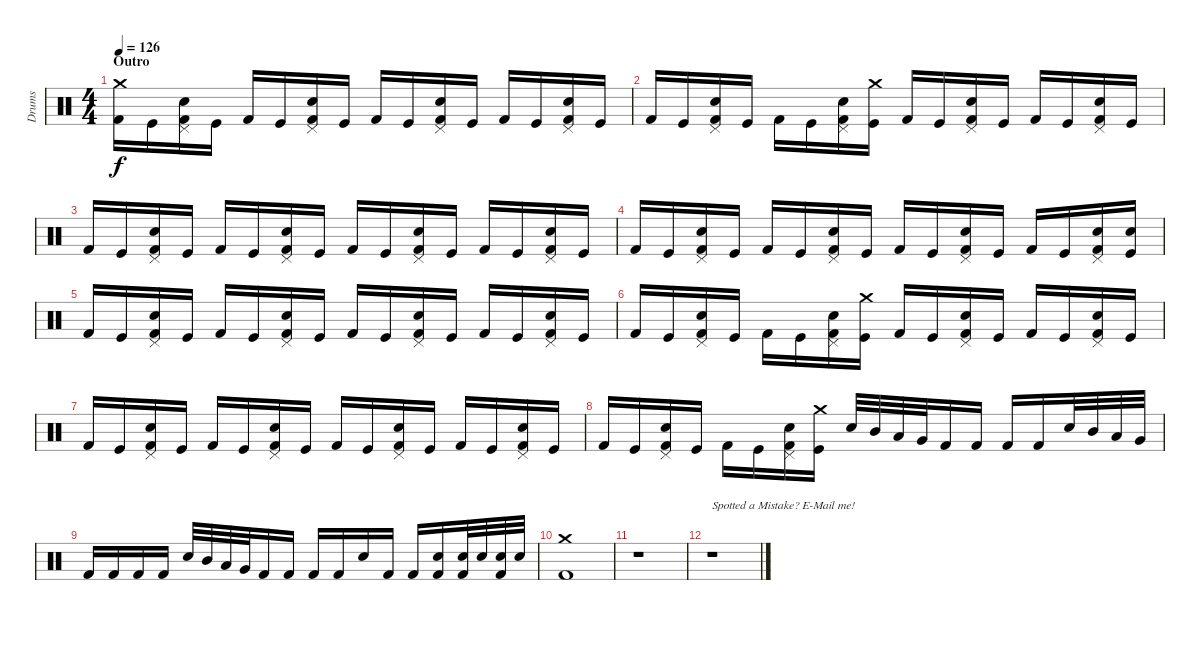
\track ("Drums" "Drums") {instrument percussion}
\staff {score}
\articulation defaults
\ts (4 4)
\section ("" "Outro")
\tempo 126
\clef neutral
\ks c
("Crash medium (hit)" "Kick (hit) 2").16{dy f} "Kick (hit)".16 ("Pedal Hi-Hat (hit)" "Electric Snare (hit)" "Kick (hit) 2").16 "Kick (hit)".16 "Kick (hit) 2".16 "Kick (hit)".16 ("Pedal Hi-Hat (hit)" "Electric Snare (hit)" "Kick (hit) 2").16 "Kick (hit)".16 "Kick (hit) 2".16 "Kick (hit)".16 ("Pedal Hi-Hat (hit)" "Electric Snare (hit)" "Kick (hit) 2").16 "Kick (hit)".16 "Kick (hit) 2".16 "Kick (hit)".16 ("Pedal Hi-Hat (hit)" "Electric Snare (hit)" "Kick (hit) 2").16 "Kick (hit)".16 |
"Kick (hit) 2".16 "Kick (hit)".16 ("Pedal Hi-Hat (hit)" "Electric Snare (hit)" "Kick (hit) 2").16 "Kick (hit)".16 "Kick (hit) 2".16 "Kick (hit)".16 ("Pedal Hi-Hat (hit)" "Electric Snare (hit)" "Kick (hit) 2").16 ("Crash medium (hit)" "Kick (hit)").16 "Kick (hit) 2".16 "Kick (hit)".16 ("Pedal Hi-Hat (hit)" "Electric Snare (hit)" "Kick (hit) 2").16 "Kick (hit)".16 "Kick (hit) 2".16 "Kick (hit)".16 ("Pedal Hi-Hat (hit)" "Electric Snare (hit)" "Kick (hit) 2").16 "Kick (hit)".16 |
"Kick (hit) 2".16 "Kick (hit)".16 ("Pedal Hi-Hat (hit)" "Electric Snare (hit)" "Kick (hit) 2").16 "Kick (hit)".16 "Kick (hit) 2".16 "Kick (hit)".16 ("Pedal Hi-Hat (hit)" "Electric Snare (hit)" "Kick (hit) 2").16 "Kick (hit)".16 "Kick (hit) 2".16 "Kick (hit)".16 ("Pedal Hi-Hat (hit)" "Electric Snare (hit)" "Kick (hit) 2").16 "Kick (hit)".16 "Kick (hit) 2".16 "Kick (hit)".16 ("Pedal Hi-Hat (hit)" "Electric Snare (hit)" "Kick (hit) 2").16 "Kick (hit)".16 |
"Kick (hit) 2".16 "Kick (hit)".16 ("Pedal Hi-Hat (hit)" "Electric Snare (hit)" "Kick (hit) 2").16 "Kick (hit)".16 "Kick (hit) 2".16 "Kick (hit)".16 ("Pedal Hi-Hat (hit)" "Electric Snare (hit)" "Kick (hit) 2").16 "Kick (hit)".16 "Kick (hit) 2".16 "Kick (hit)".16 ("Pedal Hi-Hat (hit)" "Electric Snare (hit)" "Kick (hit) 2").16 "Kick (hit)".16 "Kick (hit) 2".16 "Kick (hit)".16 ("Pedal Hi-Hat (hit)" "Electric Snare (hit)" "Kick (hit) 2").16 ("Electric Snare (hit)" "Kick (hit)").16 |
"Kick (hit) 2".16 "Kick (hit)".16 ("Pedal Hi-Hat (hit)" "Electric Snare (hit)" "Kick (hit) 2").16 "Kick (hit)".16 "Kick (hit) 2".16 "Kick (hit)".16 ("Pedal Hi-Hat (hit)" "Electric Snare (hit)" "Kick (hit) 2").16 "Kick (hit)".16 "Kick (hit) 2".16 "Kick (hit)".16 ("Pedal Hi-Hat (hit)" "Electric Snare (hit)" "Kick (hit) 2").16 "Kick (hit)".16 "Kick (hit) 2".16 "Kick (hit)".16 ("Pedal Hi-Hat (hit)" "Electric Snare (hit)" "Kick (hit) 2").16 "Kick (hit)".16 |
"Kick (hit) 2".16 "Kick (hit)".16 ("Pedal Hi-Hat (hit)" "Electric Snare (hit)" "Kick (hit) 2").16 "Kick (hit)".16 "Kick (hit) 2".16 "Kick (hit)".16 ("Pedal Hi-Hat (hit)" "Electric Snare (hit)" "Kick (hit) 2").16 ("Crash medium (hit)" "Kick (hit)").16 "Kick (hit) 2".16 "Kick (hit)".16 ("Pedal Hi-Hat (hit)" "Electric Snare (hit)" "Kick (hit) 2").16 "Kick (hit)".16 "Kick (hit) 2".16 "Kick (hit)".16 ("Pedal Hi-Hat (hit)" "Electric Snare (hit)" "Kick (hit) 2").16 "Kick (hit)".16 |
"Kick (hit) 2".16 "Kick (hit)".16 ("Pedal Hi-Hat (hit)" "Electric Snare (hit)" "Kick (hit) 2").16 "Kick (hit)".16 "Kick (hit) 2".16 "Kick (hit)".16 ("Pedal Hi-Hat (hit)" "Electric Snare (hit)" "Kick (hit) 2").16 "Kick (hit)".16 "Kick (hit) 2".16 "Kick (hit)".16 ("Pedal Hi-Hat (hit)" "Electric Snare (hit)" "Kick (hit) 2").16 "Kick (hit)".16 "Kick (hit) 2".16 "Kick (hit)".16 ("Pedal Hi-Hat (hit)" "Electric Snare (hit)" "Kick (hit) 2").16 "Kick (hit)".16 |
"Kick (hit) 2".16 "Kick (hit)".16 ("Pedal Hi-Hat (hit)" "Electric Snare (hit)" "Kick (hit) 2").16 "Kick (hit)".16 "Kick (hit) 2".16 "Kick (hit)".16 ("Pedal Hi-Hat (hit)" "Electric Snare (hit)" "Kick (hit) 2").16 ("Crash medium (hit)" "Kick (hit)").16 "Electric Snare (hit)".32 "Mid Tom (hit)".32 "Low Tom (hit)".32 "Very Low Tom (hit)".32 "Kick (hit) 2".16 "Kick (hit) 2".16 "Kick (hit) 2".16 "Kick (hit) 2".16 "Electric Snare (hit)".32 "Mid Tom (hit)".32 "Low Tom (hit)".32 "Very Low Tom (hit)".32 |
"Kick (hit) 2".16 "Kick (hit) 2".16 "Kick (hit) 2".16 "Kick (hit) 2".16 "Electric Snare (hit)".32 "Mid Tom (hit)".32 "Low Tom (hit)".32 "Very Low Tom (hit)".32 "Kick (hit) 2".16 "Kick (hit) 2".16 "Kick (hit) 2".16 "Kick (hit) 2".16 "Electric Snare (hit)".16 "Kick (hit) 2".16 "Kick (hit) 2".16 ("Electric Snare (hit)" "Kick (hit) 2").16 ("Electric Snare (hit)" "Kick (hit) 2").32 "Electric Snare (hit)".32 ("Electric Snare (hit)" "Kick (hit) 2").32 "Electric Snare (hit)".32 |
("Crash medium (hit)" "Kick (hit) 2").1 |
r.1 |
r.1{txt "Spotted a Mistake? E-Mail me!"}
